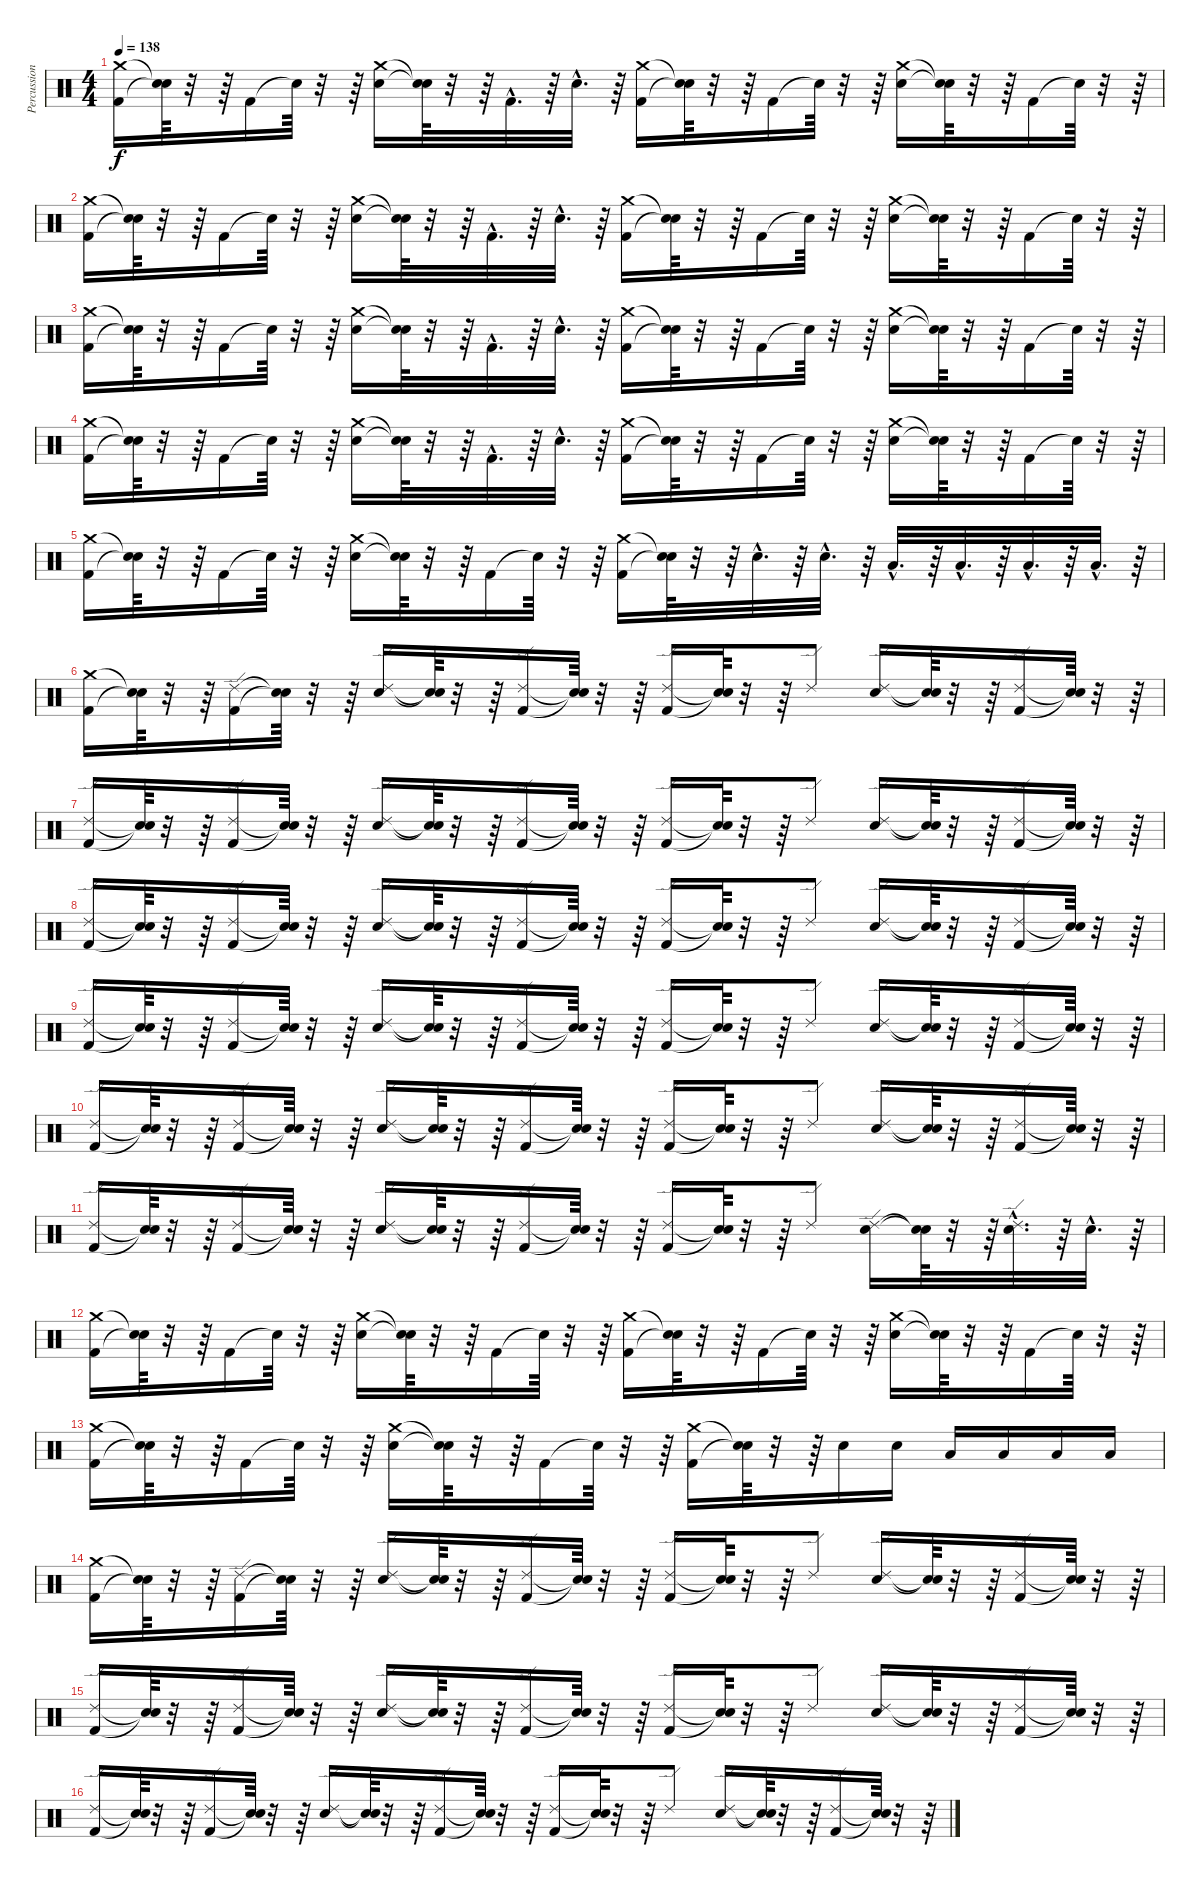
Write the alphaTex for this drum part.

\track ("Percussions" "Percussion") {instrument percussion}
\staff {score}
\articulation defaults
\ts (4 4)
\tempo 138
\clef neutral
\ks c
("Kick (hit) 2" "Crash medium (hit)").16{dy f} ("Snare (hit)"{t} "Snare (hit)"{t}).64 r.32 r.64 "Kick (hit) 2".16 "Snare (hit)"{t}.64 r.32 r.64 ("Electric Snare (hit)" "Crash medium (hit)").16 ("Snare (hit)"{t} "Snare (hit)"{t}).64 r.32 r.64 "Kick (hit) 2"{hac}.32{d} r.64 "Electric Snare (hit)"{hac}.32{d} r.64 ("Kick (hit) 2" "Crash medium (hit)").16 ("Snare (hit)"{t} "Snare (hit)"{t}).64 r.32 r.64 "Kick (hit) 2".16 "Snare (hit)"{t}.64 r.32 r.64 ("Electric Snare (hit)" "Crash medium (hit)").16 ("Snare (hit)"{t} "Snare (hit)"{t}).64 r.32 r.64 "Kick (hit) 2".16 "Snare (hit)"{t}.64 r.32 r.64 |
("Kick (hit) 2" "Crash medium (hit)").16 ("Snare (hit)"{t} "Snare (hit)"{t}).64 r.32 r.64 "Kick (hit) 2".16 "Snare (hit)"{t}.64 r.32 r.64 ("Electric Snare (hit)" "Crash medium (hit)").16 ("Snare (hit)"{t} "Snare (hit)"{t}).64 r.32 r.64 "Kick (hit) 2"{hac}.32{d} r.64 "Electric Snare (hit)"{hac}.32{d} r.64 ("Kick (hit) 2" "Crash medium (hit)").16 ("Snare (hit)"{t} "Snare (hit)"{t}).64 r.32 r.64 "Kick (hit) 2".16 "Snare (hit)"{t}.64 r.32 r.64 ("Electric Snare (hit)" "Crash medium (hit)").16 ("Snare (hit)"{t} "Snare (hit)"{t}).64 r.32 r.64 "Kick (hit) 2".16 "Snare (hit)"{t}.64 r.32 r.64 |
("Kick (hit) 2" "Crash medium (hit)").16 ("Snare (hit)"{t} "Snare (hit)"{t}).64 r.32 r.64 "Kick (hit) 2".16 "Snare (hit)"{t}.64 r.32 r.64 ("Electric Snare (hit)" "Crash medium (hit)").16 ("Snare (hit)"{t} "Snare (hit)"{t}).64 r.32 r.64 "Kick (hit) 2"{hac}.32{d} r.64 "Electric Snare (hit)"{hac}.32{d} r.64 ("Kick (hit) 2" "Crash medium (hit)").16 ("Snare (hit)"{t} "Snare (hit)"{t}).64 r.32 r.64 "Kick (hit) 2".16 "Snare (hit)"{t}.64 r.32 r.64 ("Electric Snare (hit)" "Crash medium (hit)").16 ("Snare (hit)"{t} "Snare (hit)"{t}).64 r.32 r.64 "Kick (hit) 2".16 "Snare (hit)"{t}.64 r.32 r.64 |
("Kick (hit) 2" "Crash medium (hit)").16 ("Snare (hit)"{t} "Snare (hit)"{t}).64 r.32 r.64 "Kick (hit) 2".16 "Snare (hit)"{t}.64 r.32 r.64 ("Electric Snare (hit)" "Crash medium (hit)").16 ("Snare (hit)"{t} "Snare (hit)"{t}).64 r.32 r.64 "Kick (hit) 2"{hac}.32{d} r.64 "Electric Snare (hit)"{hac}.32{d} r.64 ("Kick (hit) 2" "Crash medium (hit)").16 ("Snare (hit)"{t} "Snare (hit)"{t}).64 r.32 r.64 "Kick (hit) 2".16 "Snare (hit)"{t}.64 r.32 r.64 ("Electric Snare (hit)" "Crash medium (hit)").16 ("Snare (hit)"{t} "Snare (hit)"{t}).64 r.32 r.64 "Kick (hit) 2".16 "Snare (hit)"{t}.64 r.32 r.64 |
("Kick (hit) 2" "Crash medium (hit)").16 ("Snare (hit)"{t} "Snare (hit)"{t}).64 r.32 r.64 "Kick (hit) 2".16 "Snare (hit)"{t}.64 r.32 r.64 ("Electric Snare (hit)" "Crash medium (hit)").16 ("Snare (hit)"{t} "Snare (hit)"{t}).64 r.32 r.64 "Kick (hit) 2".16 "Snare (hit)"{t}.64 r.32 r.64 ("Crash medium (hit)" "Kick (hit) 2").16 ("Snare (hit)"{t} "Snare (hit)"{t}).64 r.32 r.64 "Electric Snare (hit)"{hac}.32{d} r.64 "Electric Snare (hit)"{hac}.32{d} r.64 "Low Floor Tom (hit)"{hac}.32{d} r.64 "Low Floor Tom (hit)"{hac}.32{d} r.64 "Low Floor Tom (hit)"{hac}.32{d} r.64 "Low Floor Tom (hit)"{hac}.32{d} r.64 |
("Crash medium (hit)" "Kick (hit) 2").16 ("Snare (hit)"{t} "Snare (hit)"{t}).64 r.32 r.64 ("Ride (edge) 2" "Kick (hit) 2").16 ("Snare (hit)"{t} "Snare (hit)"{t}).64 r.32 r.64 ("Ride (edge) 2" "Electric Snare (hit)").16 ("Snare (hit)"{t} "Snare (hit)"{t}).64 r.32 r.64 ("Ride (edge) 2" "Kick (hit) 2").16 ("Snare (hit)"{t} "Snare (hit)"{t}).64 r.32 r.64 ("Ride (edge) 2" "Kick (hit) 2").16 ("Snare (hit)"{t} "Snare (hit)"{t}).64 r.32 r.64 "Ride (edge) 2".8 ("Ride (edge) 2" "Electric Snare (hit)").16 ("Snare (hit)"{t} "Snare (hit)"{t}).64 r.32 r.64 ("Ride (edge) 2" "Kick (hit) 2").16 ("Snare (hit)"{t} "Snare (hit)"{t}).64 r.32 r.64 |
("Ride (edge) 2" "Kick (hit) 2").16 ("Snare (hit)"{t} "Snare (hit)"{t}).64 r.32 r.64 ("Ride (edge) 2" "Kick (hit) 2").16 ("Snare (hit)"{t} "Snare (hit)"{t}).64 r.32 r.64 ("Ride (edge) 2" "Electric Snare (hit)").16 ("Snare (hit)"{t} "Snare (hit)"{t}).64 r.32 r.64 ("Ride (edge) 2" "Kick (hit) 2").16 ("Snare (hit)"{t} "Snare (hit)"{t}).64 r.32 r.64 ("Kick (hit) 2" "Ride (edge) 2").16 ("Snare (hit)"{t} "Snare (hit)"{t}).64 r.32 r.64 "Ride (edge) 2".8 ("Electric Snare (hit)" "Ride (edge) 2").16 ("Snare (hit)"{t} "Snare (hit)"{t}).64 r.32 r.64 ("Kick (hit) 2" "Ride (edge) 2").16 ("Snare (hit)"{t} "Snare (hit)"{t}).64 r.32 r.64 |
("Kick (hit) 2" "Ride (edge) 2").16 ("Snare (hit)"{t} "Snare (hit)"{t}).64 r.32 r.64 ("Kick (hit) 2" "Ride (edge) 2").16 ("Snare (hit)"{t} "Snare (hit)"{t}).64 r.32 r.64 ("Electric Snare (hit)" "Ride (edge) 2").16 ("Snare (hit)"{t} "Snare (hit)"{t}).64 r.32 r.64 ("Kick (hit) 2" "Ride (edge) 2").16 ("Snare (hit)"{t} "Snare (hit)"{t}).64 r.32 r.64 ("Kick (hit) 2" "Ride (edge) 2").16 ("Snare (hit)"{t} "Snare (hit)"{t}).64 r.32 r.64 "Ride (edge) 2".8 ("Electric Snare (hit)" "Ride (edge) 2").16 ("Snare (hit)"{t} "Snare (hit)"{t}).64 r.32 r.64 ("Kick (hit) 2" "Ride (edge) 2").16 ("Snare (hit)"{t} "Snare (hit)"{t}).64 r.32 r.64 |
("Kick (hit) 2" "Ride (edge) 2").16 ("Snare (hit)"{t} "Snare (hit)"{t}).64 r.32 r.64 ("Kick (hit) 2" "Ride (edge) 2").16 ("Snare (hit)"{t} "Snare (hit)"{t}).64 r.32 r.64 ("Electric Snare (hit)" "Ride (edge) 2").16 ("Snare (hit)"{t} "Snare (hit)"{t}).64 r.32 r.64 ("Kick (hit) 2" "Ride (edge) 2").16 ("Snare (hit)"{t} "Snare (hit)"{t}).64 r.32 r.64 ("Kick (hit) 2" "Ride (edge) 2").16 ("Snare (hit)"{t} "Snare (hit)"{t}).64 r.32 r.64 "Ride (edge) 2".8 ("Electric Snare (hit)" "Ride (edge) 2").16 ("Snare (hit)"{t} "Snare (hit)"{t}).64 r.32 r.64 ("Kick (hit) 2" "Ride (edge) 2").16 ("Snare (hit)"{t} "Snare (hit)"{t}).64 r.32 r.64 |
("Kick (hit) 2" "Ride (edge) 2").16 ("Snare (hit)"{t} "Snare (hit)"{t}).64 r.32 r.64 ("Kick (hit) 2" "Ride (edge) 2").16 ("Snare (hit)"{t} "Snare (hit)"{t}).64 r.32 r.64 ("Electric Snare (hit)" "Ride (edge) 2").16 ("Snare (hit)"{t} "Snare (hit)"{t}).64 r.32 r.64 ("Kick (hit) 2" "Ride (edge) 2").16 ("Snare (hit)"{t} "Snare (hit)"{t}).64 r.32 r.64 ("Kick (hit) 2" "Ride (edge) 2").16 ("Snare (hit)"{t} "Snare (hit)"{t}).64 r.32 r.64 "Ride (edge) 2".8 ("Electric Snare (hit)" "Ride (edge) 2").16 ("Snare (hit)"{t} "Snare (hit)"{t}).64 r.32 r.64 ("Kick (hit) 2" "Ride (edge) 2").16 ("Snare (hit)"{t} "Snare (hit)"{t}).64 r.32 r.64 |
("Kick (hit) 2" "Ride (edge) 2").16 ("Snare (hit)"{t} "Snare (hit)"{t}).64 r.32 r.64 ("Kick (hit) 2" "Ride (edge) 2").16 ("Snare (hit)"{t} "Snare (hit)"{t}).64 r.32 r.64 ("Electric Snare (hit)" "Ride (edge) 2").16 ("Snare (hit)"{t} "Snare (hit)"{t}).64 r.32 r.64 ("Kick (hit) 2" "Ride (edge) 2").16 ("Snare (hit)"{t} "Snare (hit)"{t}).64 r.32 r.64 ("Kick (hit) 2" "Ride (edge) 2").16 ("Snare (hit)"{t} "Snare (hit)"{t}).64 r.32 r.64 "Ride (edge) 2".8 ("Electric Snare (hit)" "Ride (edge) 2").16 ("Snare (hit)"{t} "Snare (hit)"{t}).64 r.32 r.64 ("Electric Snare (hit)"{hac} "Ride (edge) 2"{hac}).32{d} r.64 "Electric Snare (hit)"{hac}.32{d} r.64 |
("Crash medium (hit)" "Kick (hit) 2").16 ("Snare (hit)"{t} "Snare (hit)"{t}).64 r.32 r.64 "Kick (hit) 2".16 "Snare (hit)"{t}.64 r.32 r.64 ("Crash medium (hit)" "Electric Snare (hit)").16 ("Snare (hit)"{t} "Snare (hit)"{t}).64 r.32 r.64 "Kick (hit) 2".16 "Snare (hit)"{t}.64 r.32 r.64 ("Crash medium (hit)" "Kick (hit) 2").16 ("Snare (hit)"{t} "Snare (hit)"{t}).64 r.32 r.64 "Kick (hit) 2".16 "Snare (hit)"{t}.64 r.32 r.64 ("Crash medium (hit)" "Electric Snare (hit)").16 ("Snare (hit)"{t} "Snare (hit)"{t}).64 r.32 r.64 "Kick (hit) 2".16 "Snare (hit)"{t}.64 r.32 r.64 |
("Crash medium (hit)" "Kick (hit) 2").16 ("Snare (hit)"{t} "Snare (hit)"{t}).64 r.32 r.64 "Kick (hit) 2".16 "Snare (hit)"{t}.64 r.32 r.64 ("Crash medium (hit)" "Electric Snare (hit)").16 ("Snare (hit)"{t} "Snare (hit)"{t}).64 r.32 r.64 "Kick (hit) 2".16 "Snare (hit)"{t}.64 r.32 r.64 ("Crash medium (hit)" "Kick (hit) 2").16 ("Snare (hit)"{t} "Snare (hit)"{t}).64 r.32 r.64 "Electric Snare (hit)".16 "Electric Snare (hit)".16 "Low Floor Tom (hit)".16 "Low Floor Tom (hit)".16 "Low Floor Tom (hit)".16 "Low Floor Tom (hit)".16 |
("Crash medium (hit)" "Kick (hit) 2").16 ("Snare (hit)"{t} "Snare (hit)"{t}).64 r.32 r.64 ("Ride (edge) 2" "Kick (hit) 2").16 ("Snare (hit)"{t} "Snare (hit)"{t}).64 r.32 r.64 ("Ride (edge) 2" "Electric Snare (hit)").16 ("Snare (hit)"{t} "Snare (hit)"{t}).64 r.32 r.64 ("Ride (edge) 2" "Kick (hit) 2").16 ("Snare (hit)"{t} "Snare (hit)"{t}).64 r.32 r.64 ("Ride (edge) 2" "Kick (hit) 2").16 ("Snare (hit)"{t} "Snare (hit)"{t}).64 r.32 r.64 "Ride (edge) 2".8 ("Ride (edge) 2" "Electric Snare (hit)").16 ("Snare (hit)"{t} "Snare (hit)"{t}).64 r.32 r.64 ("Ride (edge) 2" "Kick (hit) 2").16 ("Snare (hit)"{t} "Snare (hit)"{t}).64 r.32 r.64 |
("Ride (edge) 2" "Kick (hit) 2").16 ("Snare (hit)"{t} "Snare (hit)"{t}).64 r.32 r.64 ("Ride (edge) 2" "Kick (hit) 2").16 ("Snare (hit)"{t} "Snare (hit)"{t}).64 r.32 r.64 ("Ride (edge) 2" "Electric Snare (hit)").16 ("Snare (hit)"{t} "Snare (hit)"{t}).64 r.32 r.64 ("Ride (edge) 2" "Kick (hit) 2").16 ("Snare (hit)"{t} "Snare (hit)"{t}).64 r.32 r.64 ("Kick (hit) 2" "Ride (edge) 2").16 ("Snare (hit)"{t} "Snare (hit)"{t}).64 r.32 r.64 "Ride (edge) 2".8 ("Electric Snare (hit)" "Ride (edge) 2").16 ("Snare (hit)"{t} "Snare (hit)"{t}).64 r.32 r.64 ("Kick (hit) 2" "Ride (edge) 2").16 ("Snare (hit)"{t} "Snare (hit)"{t}).64 r.32 r.64 |
("Kick (hit) 2" "Ride (edge) 2").16 ("Snare (hit)"{t} "Snare (hit)"{t}).64 r.32 r.64 ("Kick (hit) 2" "Ride (edge) 2").16 ("Snare (hit)"{t} "Snare (hit)"{t}).64 r.32 r.64 ("Electric Snare (hit)" "Ride (edge) 2").16 ("Snare (hit)"{t} "Snare (hit)"{t}).64 r.32 r.64 ("Kick (hit) 2" "Ride (edge) 2").16 ("Snare (hit)"{t} "Snare (hit)"{t}).64 r.32 r.64 ("Kick (hit) 2" "Ride (edge) 2").16 ("Snare (hit)"{t} "Snare (hit)"{t}).64 r.32 r.64 "Ride (edge) 2".8 ("Electric Snare (hit)" "Ride (edge) 2").16 ("Snare (hit)"{t} "Snare (hit)"{t}).64 r.32 r.64 ("Kick (hit) 2" "Ride (edge) 2").16 ("Snare (hit)"{t} "Snare (hit)"{t}).64 r.32 r.64
